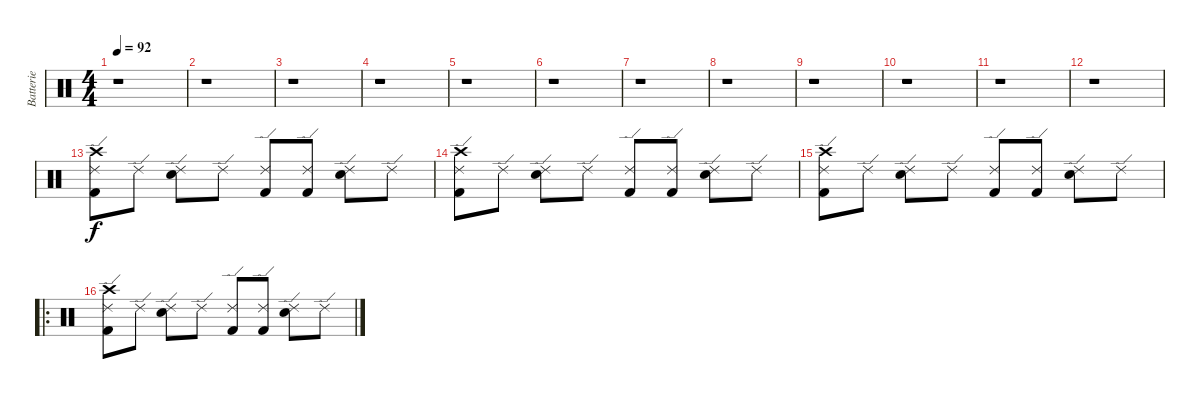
\track ("Batterie" "Batterie") {instrument percussion}
\staff {score}
\articulation defaults
\ts (4 4)
\tempo 92
\clef neutral
\ks c
r.1{dy f} |
r.1 |
r.1 |
r.1 |
r.1 |
r.1 |
r.1 |
r.1 |
r.1 |
r.1 |
r.1 |
r.1 |
("Ride (edge) 2" "Kick (hit) 2" "Crash high (hit)").8 "Ride (edge) 2".8 ("Ride (edge) 2" "Electric Snare (hit)").8 "Ride (edge) 2".8 ("Ride (edge) 2" "Kick (hit) 2").8 ("Ride (edge) 2" "Kick (hit) 2").8 ("Ride (edge) 2" "Electric Snare (hit)").8 "Ride (edge) 2".8 |
("Ride (edge) 2" "Kick (hit) 2" "Crash high (hit)").8 "Ride (edge) 2".8 ("Ride (edge) 2" "Electric Snare (hit)").8 "Ride (edge) 2".8 ("Ride (edge) 2" "Kick (hit) 2").8 ("Ride (edge) 2" "Kick (hit) 2").8 ("Ride (edge) 2" "Electric Snare (hit)").8 "Ride (edge) 2".8 |
("Ride (edge) 2" "Kick (hit) 2" "Crash high (hit)").8 "Ride (edge) 2".8 ("Ride (edge) 2" "Electric Snare (hit)").8 "Ride (edge) 2".8 ("Ride (edge) 2" "Kick (hit) 2").8 ("Ride (edge) 2" "Kick (hit) 2").8 ("Ride (edge) 2" "Electric Snare (hit)").8 "Ride (edge) 2".8 |
\ro
("Ride (edge) 2" "Kick (hit) 2" "Crash high (hit)").8 "Ride (edge) 2".8 ("Ride (edge) 2" "Electric Snare (hit)").8 "Ride (edge) 2".8 ("Ride (edge) 2" "Kick (hit) 2").8 ("Ride (edge) 2" "Kick (hit) 2").8 ("Ride (edge) 2" "Electric Snare (hit)").8 "Ride (edge) 2".8
